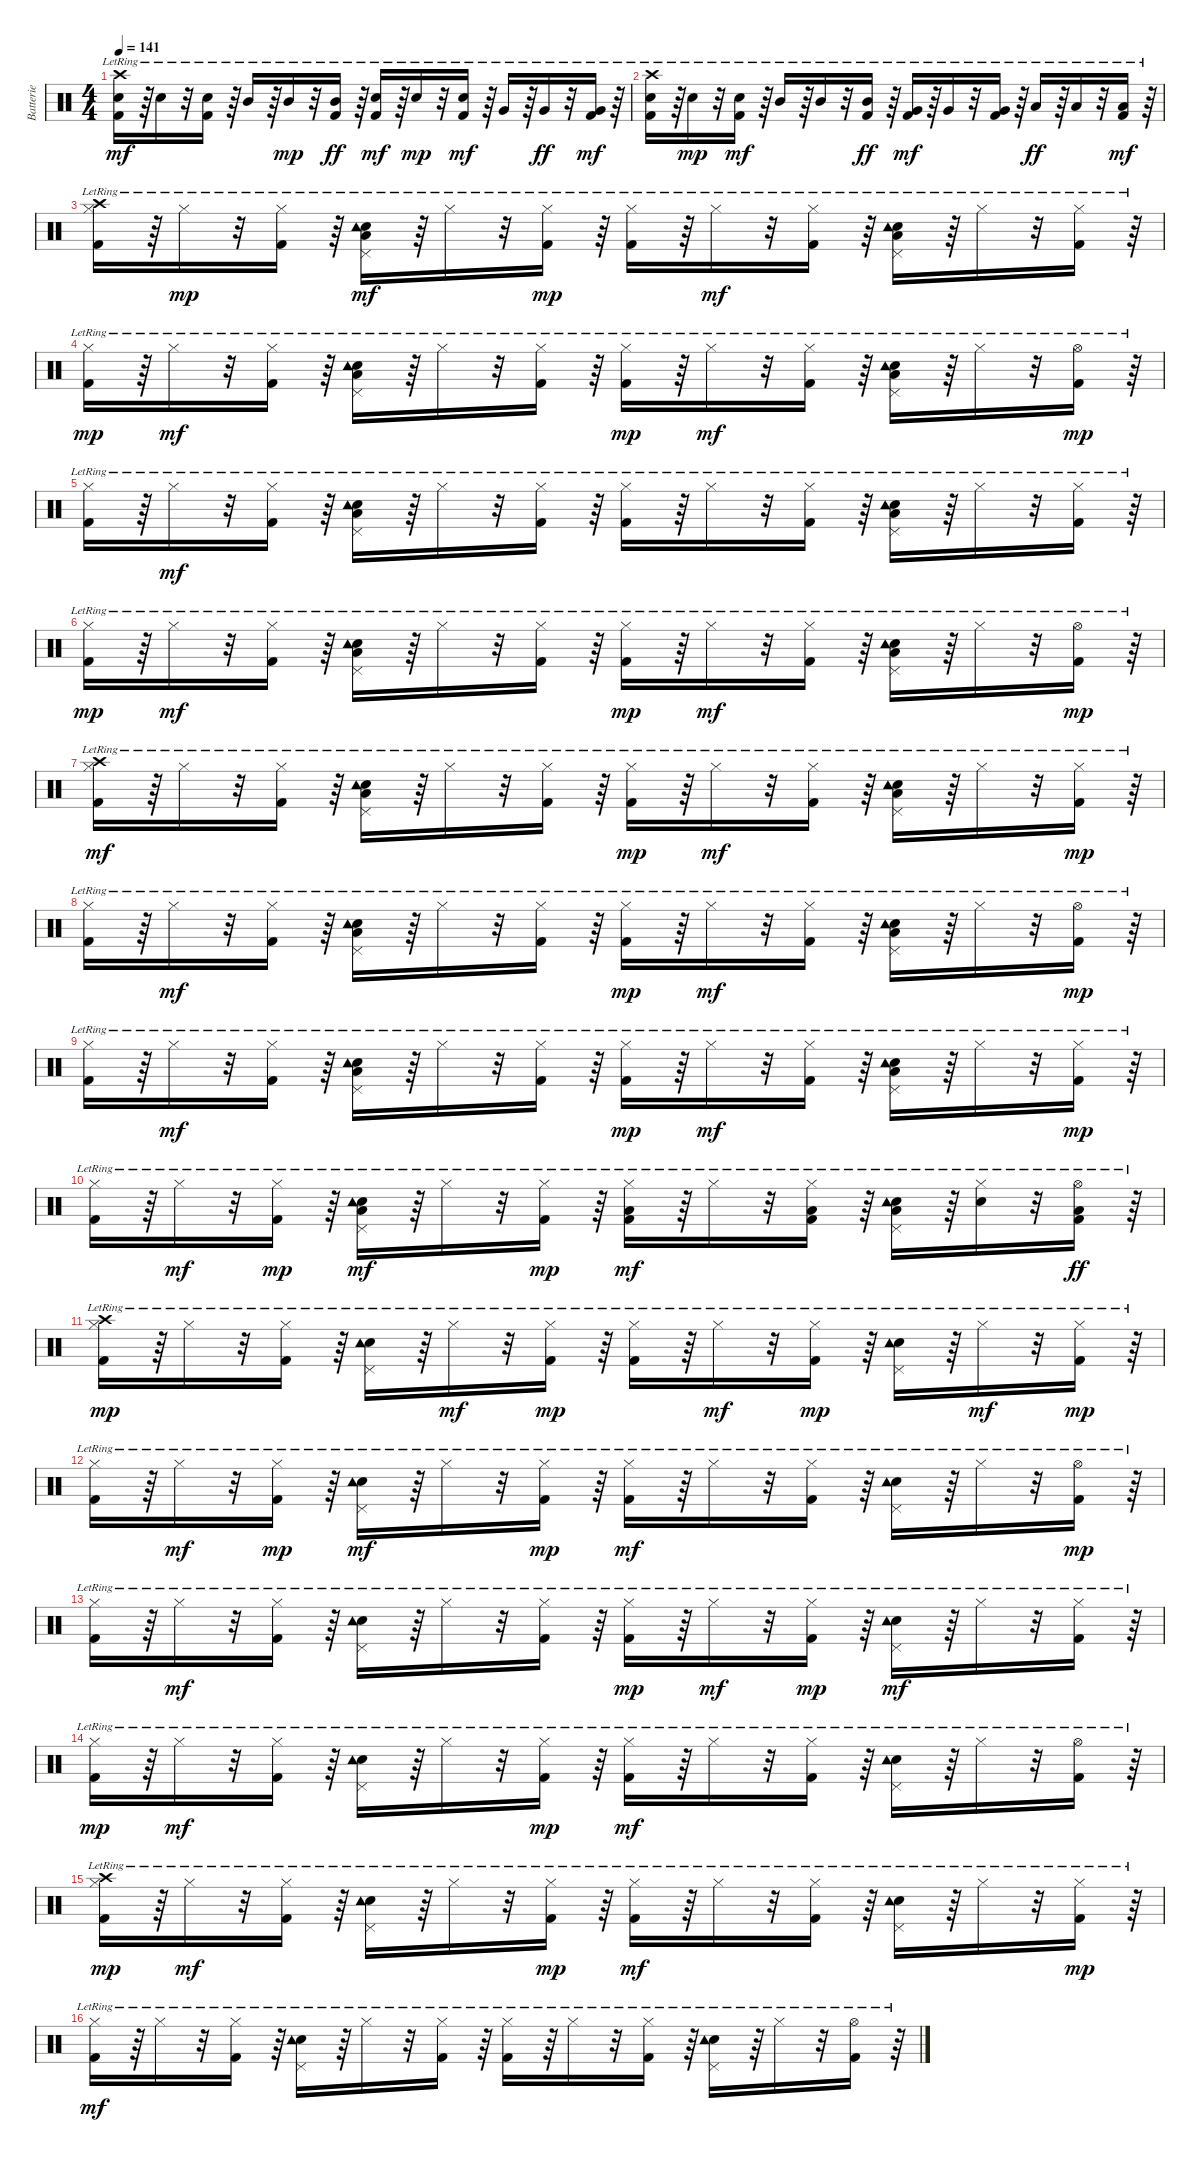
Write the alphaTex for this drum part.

\track ("Batterie" "Batterie") {instrument percussion}
\staff {score}
\articulation defaults
\ts (4 4)
\tempo 141
\clef neutral
\ks c
("Crash high (hit)"{lr} "Snare (hit) 2"{lr} "Kick (hit) 2"{lr}).16{dy mf} r.64 "Snare (hit) 2"{lr}.16 r.32 ("Snare (hit) 2"{lr} "Kick (hit) 2"{lr}).16 r.64 "Mid Tom (hit)"{lr}.16 r.64 "Mid Tom (hit)"{lr}.16{dy mp} r.32 ("Kick (hit) 2"{lr} "Mid Tom (hit)"{lr}).16{dy ff} r.64 ("Snare (hit) 2"{lr} "Kick (hit) 2"{lr}).16{dy mf} r.64 "Snare (hit) 2"{lr}.16{dy mp} r.32 ("Snare (hit) 2"{lr} "Kick (hit) 2"{lr}).16{dy mf} r.64 "Very Low Tom (hit)"{lr}.16 r.64 "Very Low Tom (hit)"{lr}.16{dy ff} r.32 ("Very Low Tom (hit)"{lr} "Kick (hit) 2"{lr}).16{dy mf} r.64 |
("Crash high (hit)"{lr} "Snare (hit) 2"{lr} "Kick (hit) 2"{lr}).16 r.64 "Snare (hit) 2"{lr}.16{dy mp} r.32 ("Snare (hit) 2"{lr} "Kick (hit) 2"{lr}).16{dy mf} r.64 "Mid Tom (hit)"{lr}.16 r.64 "Mid Tom (hit)"{lr}.16 r.32 ("Kick (hit) 2"{lr} "Mid Tom (hit)"{lr}).16{dy ff} r.64 ("Very Low Tom (hit)"{lr} "Kick (hit) 2"{lr}).16{dy mf} r.64 "Very Low Tom (hit)"{lr}.16 r.32 ("Very Low Tom (hit)"{lr} "Kick (hit) 2"{lr}).16 r.64 "Low Floor Tom (hit)"{lr}.16{dy ff} r.64 "Low Floor Tom (hit)"{lr}.16 r.32 ("Kick (hit) 2"{lr} "Low Floor Tom (hit)"{lr}).16{dy mf} r.64 |
("Hi-Hat (closed)"{lr} "Crash high (hit)"{lr} "Kick (hit) 2"{lr}).16 r.64 "Hi-Hat (closed)"{lr}.16{dy mp} r.32 ("Hi-Hat (closed)"{lr} "Kick (hit) 2"{lr}).16 r.64 ("Pedal Hi-Hat (hit)"{lr} "Snare (hit) 2"{lr} "Low Floor Tom (hit)"{lr} "Tambourine (hit)"{lr}).16{dy mf} r.64 "Hi-Hat (closed)"{lr}.16 r.32 ("Hi-Hat (closed)"{lr} "Kick (hit) 2"{lr}).16{dy mp} r.64 ("Hi-Hat (closed)"{lr} "Kick (hit) 2"{lr}).16 r.64 "Hi-Hat (closed)"{lr}.16{dy mf} r.32 ("Hi-Hat (closed)"{lr} "Kick (hit) 2"{lr}).16 r.64 ("Pedal Hi-Hat (hit)"{lr} "Snare (hit) 2"{lr} "Low Floor Tom (hit)"{lr} "Tambourine (hit)"{lr}).16 r.64 "Hi-Hat (closed)"{lr}.16 r.32 ("Hi-Hat (closed)"{lr} "Kick (hit) 2"{lr}).16 r.64 |
("Hi-Hat (closed)"{lr} "Kick (hit) 2"{lr}).16{dy mp} r.64 "Hi-Hat (closed)"{lr}.16{dy mf} r.32 ("Hi-Hat (closed)"{lr} "Kick (hit) 2"{lr}).16 r.64 ("Pedal Hi-Hat (hit)"{lr} "Snare (hit) 2"{lr} "Low Floor Tom (hit)"{lr} "Tambourine (hit)"{lr}).16 r.64 "Hi-Hat (closed)"{lr}.16 r.32 ("Hi-Hat (closed)"{lr} "Kick (hit) 2"{lr}).16 r.64 ("Hi-Hat (closed)"{lr} "Kick (hit) 2"{lr}).16{dy mp} r.64 "Hi-Hat (closed)"{lr}.16{dy mf} r.32 ("Hi-Hat (closed)"{lr} "Kick (hit) 2"{lr}).16 r.64 ("Pedal Hi-Hat (hit)"{lr} "Snare (hit) 2"{lr} "Low Floor Tom (hit)"{lr} "Tambourine (hit)"{lr}).16 r.64 "Hi-Hat (closed)"{lr}.16 r.32 ("Hi-Hat (open)"{lr} "Kick (hit) 2"{lr}).16{dy mp} r.64 |
("Hi-Hat (closed)"{lr} "Kick (hit) 2"{lr}).16 r.64 "Hi-Hat (closed)"{lr}.16{dy mf} r.32 ("Hi-Hat (closed)"{lr} "Kick (hit) 2"{lr}).16 r.64 ("Pedal Hi-Hat (hit)"{lr} "Snare (hit) 2"{lr} "Low Floor Tom (hit)"{lr} "Tambourine (hit)"{lr}).16 r.64 "Hi-Hat (closed)"{lr}.16 r.32 ("Hi-Hat (closed)"{lr} "Kick (hit) 2"{lr}).16 r.64 ("Hi-Hat (closed)"{lr} "Kick (hit) 2"{lr}).16 r.64 "Hi-Hat (closed)"{lr}.16 r.32 ("Hi-Hat (closed)"{lr} "Kick (hit) 2"{lr}).16 r.64 ("Pedal Hi-Hat (hit)"{lr} "Snare (hit) 2"{lr} "Low Floor Tom (hit)"{lr} "Tambourine (hit)"{lr}).16 r.64 "Hi-Hat (closed)"{lr}.16 r.32 ("Hi-Hat (closed)"{lr} "Kick (hit) 2"{lr}).16 r.64 |
("Hi-Hat (closed)"{lr} "Kick (hit) 2"{lr}).16{dy mp} r.64 "Hi-Hat (closed)"{lr}.16{dy mf} r.32 ("Hi-Hat (closed)"{lr} "Kick (hit) 2"{lr}).16 r.64 ("Pedal Hi-Hat (hit)"{lr} "Snare (hit) 2"{lr} "Low Floor Tom (hit)"{lr} "Tambourine (hit)"{lr}).16 r.64 "Hi-Hat (closed)"{lr}.16 r.32 ("Hi-Hat (closed)"{lr} "Kick (hit) 2"{lr}).16 r.64 ("Hi-Hat (closed)"{lr} "Kick (hit) 2"{lr}).16{dy mp} r.64 "Hi-Hat (closed)"{lr}.16{dy mf} r.32 ("Hi-Hat (closed)"{lr} "Kick (hit) 2"{lr}).16 r.64 ("Pedal Hi-Hat (hit)"{lr} "Snare (hit) 2"{lr} "Low Floor Tom (hit)"{lr} "Tambourine (hit)"{lr}).16 r.64 "Hi-Hat (closed)"{lr}.16 r.32 ("Hi-Hat (open)"{lr} "Kick (hit) 2"{lr}).16{dy mp} r.64 |
("Hi-Hat (closed)"{lr} "Crash high (hit)"{lr} "Kick (hit) 2"{lr}).16{dy mf} r.64 "Hi-Hat (closed)"{lr}.16 r.32 ("Hi-Hat (closed)"{lr} "Kick (hit) 2"{lr}).16 r.64 ("Pedal Hi-Hat (hit)"{lr} "Snare (hit) 2"{lr} "Low Floor Tom (hit)"{lr} "Tambourine (hit)"{lr}).16 r.64 "Hi-Hat (closed)"{lr}.16 r.32 ("Hi-Hat (closed)"{lr} "Kick (hit) 2"{lr}).16 r.64 ("Hi-Hat (closed)"{lr} "Kick (hit) 2"{lr}).16{dy mp} r.64 "Hi-Hat (closed)"{lr}.16{dy mf} r.32 ("Hi-Hat (closed)"{lr} "Kick (hit) 2"{lr}).16 r.64 ("Pedal Hi-Hat (hit)"{lr} "Snare (hit) 2"{lr} "Low Floor Tom (hit)"{lr} "Tambourine (hit)"{lr}).16 r.64 "Hi-Hat (closed)"{lr}.16 r.32 ("Hi-Hat (closed)"{lr} "Kick (hit) 2"{lr}).16{dy mp} r.64 |
("Hi-Hat (closed)"{lr} "Kick (hit) 2"{lr}).16 r.64 "Hi-Hat (closed)"{lr}.16{dy mf} r.32 ("Hi-Hat (closed)"{lr} "Kick (hit) 2"{lr}).16 r.64 ("Pedal Hi-Hat (hit)"{lr} "Snare (hit) 2"{lr} "Low Floor Tom (hit)"{lr} "Tambourine (hit)"{lr}).16 r.64 "Hi-Hat (closed)"{lr}.16 r.32 ("Hi-Hat (closed)"{lr} "Kick (hit) 2"{lr}).16 r.64 ("Hi-Hat (closed)"{lr} "Kick (hit) 2"{lr}).16{dy mp} r.64 "Hi-Hat (closed)"{lr}.16{dy mf} r.32 ("Hi-Hat (closed)"{lr} "Kick (hit) 2"{lr}).16 r.64 ("Pedal Hi-Hat (hit)"{lr} "Snare (hit) 2"{lr} "Low Floor Tom (hit)"{lr} "Tambourine (hit)"{lr}).16 r.64 "Hi-Hat (closed)"{lr}.16 r.32 ("Hi-Hat (open)"{lr} "Kick (hit) 2"{lr}).16{dy mp} r.64 |
("Hi-Hat (closed)"{lr} "Kick (hit) 2"{lr}).16 r.64 "Hi-Hat (closed)"{lr}.16{dy mf} r.32 ("Hi-Hat (closed)"{lr} "Kick (hit) 2"{lr}).16 r.64 ("Pedal Hi-Hat (hit)"{lr} "Snare (hit) 2"{lr} "Low Floor Tom (hit)"{lr} "Tambourine (hit)"{lr}).16 r.64 "Hi-Hat (closed)"{lr}.16 r.32 ("Hi-Hat (closed)"{lr} "Kick (hit) 2"{lr}).16 r.64 ("Hi-Hat (closed)"{lr} "Kick (hit) 2"{lr}).16{dy mp} r.64 "Hi-Hat (closed)"{lr}.16{dy mf} r.32 ("Hi-Hat (closed)"{lr} "Kick (hit) 2"{lr}).16 r.64 ("Pedal Hi-Hat (hit)"{lr} "Snare (hit) 2"{lr} "Low Floor Tom (hit)"{lr} "Tambourine (hit)"{lr}).16 r.64 "Hi-Hat (closed)"{lr}.16 r.32 ("Hi-Hat (closed)"{lr} "Kick (hit) 2"{lr}).16{dy mp} r.64 |
("Hi-Hat (closed)"{lr} "Kick (hit) 2"{lr}).16 r.64 "Hi-Hat (closed)"{lr}.16{dy mf} r.32 ("Hi-Hat (closed)"{lr} "Kick (hit) 2"{lr}).16{dy mp} r.64 ("Pedal Hi-Hat (hit)"{lr} "Snare (hit) 2"{lr} "Low Floor Tom (hit)"{lr} "Tambourine (hit)"{lr}).16{dy mf} r.64 "Hi-Hat (closed)"{lr}.16 r.32 ("Hi-Hat (closed)"{lr} "Kick (hit) 2"{lr}).16{dy mp} r.64 ("Hi-Hat (closed)"{lr} "Kick (hit) 2"{lr} "Low Floor Tom (hit)"{lr}).16{dy mf} r.64 "Hi-Hat (closed)"{lr}.16 r.32 ("Hi-Hat (closed)"{lr} "Kick (hit) 2"{lr} "Low Floor Tom (hit)"{lr}).16 r.64 ("Pedal Hi-Hat (hit)"{lr} "Snare (hit) 2"{lr} "Low Floor Tom (hit)"{lr} "Tambourine (hit)"{lr}).16 r.64 ("Hi-Hat (closed)"{lr} "Snare (hit) 2"{lr}).16 r.32 ("Hi-Hat (open)"{lr} "Kick (hit) 2"{lr} "Low Floor Tom (hit)"{lr}).16{dy ff} r.64 |
("Hi-Hat (closed)"{lr} "Crash high (hit)"{lr} "Kick (hit) 2"{lr}).16{dy mp} r.64 "Hi-Hat (closed)"{lr}.16 r.32 ("Hi-Hat (closed)"{lr} "Kick (hit) 2"{lr}).16 r.64 ("Pedal Hi-Hat (hit)"{lr} "Snare (hit) 2"{lr} "Tambourine (hit)"{lr}).16 r.64 "Hi-Hat (closed)"{lr}.16{dy mf} r.32 ("Hi-Hat (closed)"{lr} "Kick (hit) 2"{lr}).16{dy mp} r.64 ("Hi-Hat (closed)"{lr} "Kick (hit) 2"{lr}).16 r.64 "Hi-Hat (closed)"{lr}.16{dy mf} r.32 ("Hi-Hat (closed)"{lr} "Kick (hit) 2"{lr}).16{dy mp} r.64 ("Pedal Hi-Hat (hit)"{lr} "Snare (hit) 2"{lr} "Tambourine (hit)"{lr}).16 r.64 "Hi-Hat (closed)"{lr}.16{dy mf} r.32 ("Hi-Hat (closed)"{lr} "Kick (hit) 2"{lr}).16{dy mp} r.64 |
("Hi-Hat (closed)"{lr} "Kick (hit) 2"{lr}).16 r.64 "Hi-Hat (closed)"{lr}.16{dy mf} r.32 ("Hi-Hat (closed)"{lr} "Kick (hit) 2"{lr}).16{dy mp} r.64 ("Pedal Hi-Hat (hit)"{lr} "Snare (hit) 2"{lr} "Tambourine (hit)"{lr}).16{dy mf} r.64 "Hi-Hat (closed)"{lr}.16 r.32 ("Hi-Hat (closed)"{lr} "Kick (hit) 2"{lr}).16{dy mp} r.64 ("Hi-Hat (closed)"{lr} "Kick (hit) 2"{lr}).16{dy mf} r.64 "Hi-Hat (closed)"{lr}.16 r.32 ("Hi-Hat (closed)"{lr} "Kick (hit) 2"{lr}).16 r.64 ("Pedal Hi-Hat (hit)"{lr} "Snare (hit) 2"{lr} "Tambourine (hit)"{lr}).16 r.64 "Hi-Hat (closed)"{lr}.16 r.32 ("Hi-Hat (open)"{lr} "Kick (hit) 2"{lr}).16{dy mp} r.64 |
("Hi-Hat (closed)"{lr} "Kick (hit) 2"{lr}).16 r.64 "Hi-Hat (closed)"{lr}.16{dy mf} r.32 ("Hi-Hat (closed)"{lr} "Kick (hit) 2"{lr}).16 r.64 ("Pedal Hi-Hat (hit)"{lr} "Snare (hit) 2"{lr} "Tambourine (hit)"{lr}).16 r.64 "Hi-Hat (closed)"{lr}.16 r.32 ("Hi-Hat (closed)"{lr} "Kick (hit) 2"{lr}).16 r.64 ("Hi-Hat (closed)"{lr} "Kick (hit) 2"{lr}).16{dy mp} r.64 "Hi-Hat (closed)"{lr}.16{dy mf} r.32 ("Hi-Hat (closed)"{lr} "Kick (hit) 2"{lr}).16{dy mp} r.64 ("Pedal Hi-Hat (hit)"{lr} "Snare (hit) 2"{lr} "Tambourine (hit)"{lr}).16{dy mf} r.64 "Hi-Hat (closed)"{lr}.16 r.32 ("Hi-Hat (closed)"{lr} "Kick (hit) 2"{lr}).16 r.64 |
("Hi-Hat (closed)"{lr} "Kick (hit) 2"{lr}).16{dy mp} r.64 "Hi-Hat (closed)"{lr}.16{dy mf} r.32 ("Hi-Hat (closed)"{lr} "Kick (hit) 2"{lr}).16 r.64 ("Pedal Hi-Hat (hit)"{lr} "Snare (hit) 2"{lr} "Tambourine (hit)"{lr}).16 r.64 "Hi-Hat (closed)"{lr}.16 r.32 ("Hi-Hat (closed)"{lr} "Kick (hit) 2"{lr}).16{dy mp} r.64 ("Hi-Hat (closed)"{lr} "Kick (hit) 2"{lr}).16{dy mf} r.64 "Hi-Hat (closed)"{lr}.16 r.32 ("Hi-Hat (closed)"{lr} "Kick (hit) 2"{lr}).16 r.64 ("Pedal Hi-Hat (hit)"{lr} "Snare (hit) 2"{lr} "Tambourine (hit)"{lr}).16 r.64 "Hi-Hat (closed)"{lr}.16 r.32 ("Hi-Hat (open)"{lr} "Kick (hit) 2"{lr}).16 r.64 |
("Hi-Hat (closed)"{lr} "Crash high (hit)"{lr} "Kick (hit) 2"{lr}).16{dy mp} r.64 "Hi-Hat (closed)"{lr}.16{dy mf} r.32 ("Hi-Hat (closed)"{lr} "Kick (hit) 2"{lr}).16 r.64 ("Pedal Hi-Hat (hit)"{lr} "Snare (hit) 2"{lr} "Tambourine (hit)"{lr}).16 r.64 "Hi-Hat (closed)"{lr}.16 r.32 ("Hi-Hat (closed)"{lr} "Kick (hit) 2"{lr}).16{dy mp} r.64 ("Hi-Hat (closed)"{lr} "Kick (hit) 2"{lr}).16{dy mf} r.64 "Hi-Hat (closed)"{lr}.16 r.32 ("Hi-Hat (closed)"{lr} "Kick (hit) 2"{lr}).16 r.64 ("Pedal Hi-Hat (hit)"{lr} "Snare (hit) 2"{lr} "Tambourine (hit)"{lr}).16 r.64 "Hi-Hat (closed)"{lr}.16 r.32 ("Hi-Hat (closed)"{lr} "Kick (hit) 2"{lr}).16{dy mp} r.64 |
("Hi-Hat (closed)"{lr} "Kick (hit) 2"{lr}).16{dy mf} r.64 "Hi-Hat (closed)"{lr}.16 r.32 ("Hi-Hat (closed)"{lr} "Kick (hit) 2"{lr}).16 r.64 ("Pedal Hi-Hat (hit)"{lr} "Snare (hit) 2"{lr} "Tambourine (hit)"{lr}).16 r.64 "Hi-Hat (closed)"{lr}.16 r.32 ("Hi-Hat (closed)"{lr} "Kick (hit) 2"{lr}).16 r.64 ("Hi-Hat (closed)"{lr} "Kick (hit) 2"{lr}).16 r.64 "Hi-Hat (closed)"{lr}.16 r.32 ("Hi-Hat (closed)"{lr} "Kick (hit) 2"{lr}).16 r.64 ("Pedal Hi-Hat (hit)"{lr} "Snare (hit) 2"{lr} "Tambourine (hit)"{lr}).16 r.64 "Hi-Hat (closed)"{lr}.16 r.32 ("Hi-Hat (open)"{lr} "Kick (hit) 2"{lr}).16 r.64
